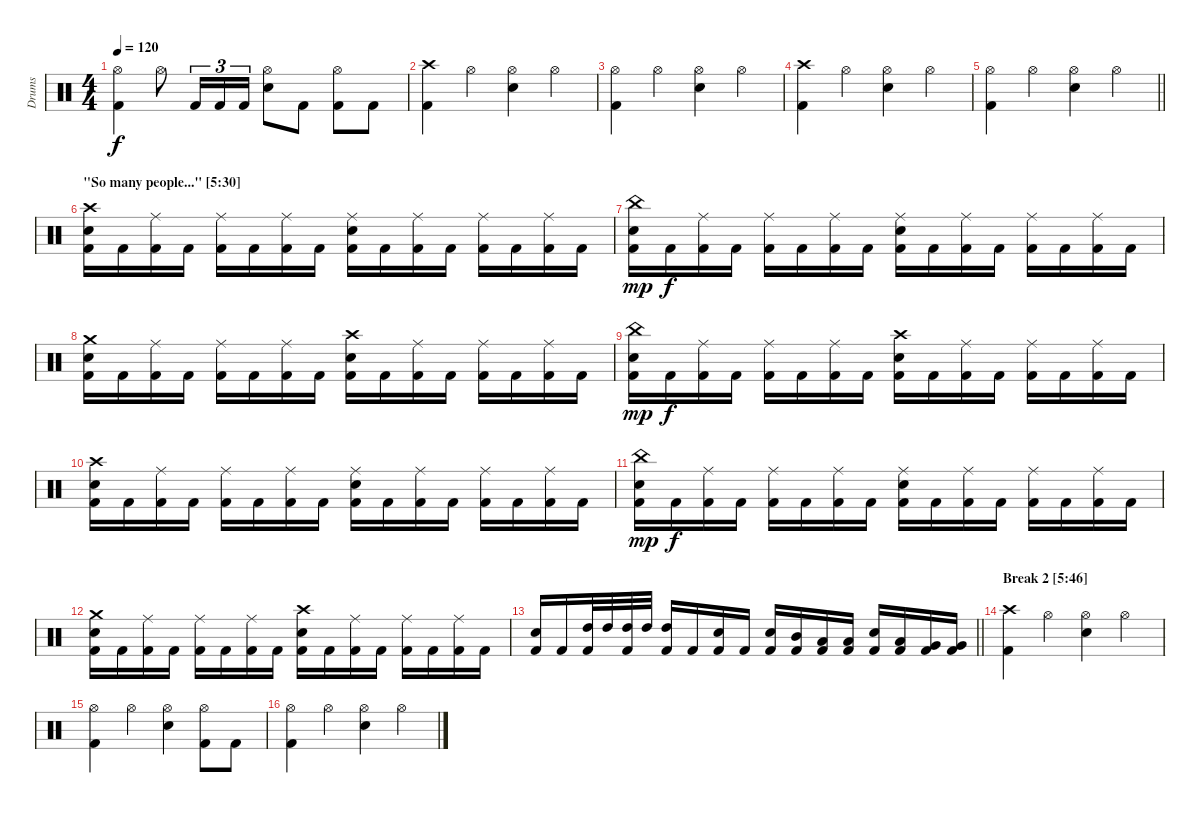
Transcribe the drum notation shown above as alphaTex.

\track ("Drums" "Drums") {instrument percussion}
\staff {score}
\articulation defaults
\ts (4 4)
\tempo 120
\clef neutral
\ks c
("Hi-Hat (open)" "Kick (hit) 2").4{dy f} "Hi-Hat (open)".8 "Kick (hit) 2".16{tu (3 2)} "Kick (hit) 2".16{tu (3 2)} "Kick (hit) 2".16{tu (3 2)} ("Hi-Hat (open)" "Snare (hit) 2").8 "Kick (hit) 2".8 ("Hi-Hat (open)" "Kick (hit) 2").8 "Kick (hit) 2".8 |
("Crash high (hit)" "Kick (hit) 2").4 "Hi-Hat (open)".4 ("Hi-Hat (open)" "Snare (hit) 2").4 "Hi-Hat (open)".4 |
("Hi-Hat (open)" "Kick (hit) 2").4 "Hi-Hat (open)".4 ("Hi-Hat (open)" "Snare (hit) 2").4 "Hi-Hat (open)".4 |
("Crash high (hit)" "Kick (hit) 2").4 "Hi-Hat (open)".4 ("Hi-Hat (open)" "Snare (hit) 2").4 "Hi-Hat (open)".4 |
\barLineRight lightlight
("Hi-Hat (open)" "Kick (hit) 2").4 "Hi-Hat (open)".4 ("Hi-Hat (open)" "Snare (hit) 2").4 "Hi-Hat (open)".4 |
\section ("" "\"So many people...\" [5:30]")
("Crash high (hit)" "Snare (hit) 2" "Kick (hit) 2").16 "Kick (hit) 2".16 ("Ride (middle)" "Kick (hit) 2").16 "Kick (hit) 2".16 ("Ride (middle)" "Kick (hit) 2").16 "Kick (hit) 2".16 ("Ride (middle)" "Kick (hit) 2").16 "Kick (hit) 2".16 ("Ride (middle)" "Snare (hit) 2" "Kick (hit) 2").16 "Kick (hit) 2".16 ("Ride (middle)" "Kick (hit) 2").16 "Kick (hit) 2".16 ("Ride (middle)" "Kick (hit) 2").16 "Kick (hit) 2".16 ("Ride (middle)" "Kick (hit) 2").16 "Kick (hit) 2".16 |
("China (hit)" "Snare (hit) 2" "Kick (hit) 2").16{dy mp} "Kick (hit) 2".16{dy f} ("Ride (middle)" "Kick (hit) 2").16 "Kick (hit) 2".16 ("Ride (middle)" "Kick (hit) 2").16 "Kick (hit) 2".16 ("Ride (middle)" "Kick (hit) 2").16 "Kick (hit) 2".16 ("Ride (middle)" "Snare (hit) 2" "Kick (hit) 2").16 "Kick (hit) 2".16 ("Ride (middle)" "Kick (hit) 2").16 "Kick (hit) 2".16 ("Ride (middle)" "Kick (hit) 2").16 "Kick (hit) 2".16 ("Ride (middle)" "Kick (hit) 2").16 "Kick (hit) 2".16 |
("Crash medium (hit)" "Snare (hit) 2" "Kick (hit) 2").16 "Kick (hit) 2".16 ("Ride (middle)" "Kick (hit) 2").16 "Kick (hit) 2".16 ("Ride (middle)" "Kick (hit) 2").16 "Kick (hit) 2".16 ("Ride (middle)" "Kick (hit) 2").16 "Kick (hit) 2".16 ("Crash high (hit)" "Snare (hit) 2" "Kick (hit) 2").16 "Kick (hit) 2".16 ("Ride (middle)" "Kick (hit) 2").16 "Kick (hit) 2".16 ("Ride (middle)" "Kick (hit) 2").16 "Kick (hit) 2".16 ("Ride (middle)" "Kick (hit) 2").16 "Kick (hit) 2".16 |
("China (hit)" "Snare (hit) 2" "Kick (hit) 2").16{dy mp} "Kick (hit) 2".16{dy f} ("Ride (middle)" "Kick (hit) 2").16 "Kick (hit) 2".16 ("Ride (middle)" "Kick (hit) 2").16 "Kick (hit) 2".16 ("Ride (middle)" "Kick (hit) 2").16 "Kick (hit) 2".16 ("Crash high (hit)" "Snare (hit) 2" "Kick (hit) 2").16 "Kick (hit) 2".16 ("Ride (middle)" "Kick (hit) 2").16 "Kick (hit) 2".16 ("Ride (middle)" "Kick (hit) 2").16 "Kick (hit) 2".16 ("Ride (middle)" "Kick (hit) 2").16 "Kick (hit) 2".16 |
("Crash high (hit)" "Snare (hit) 2" "Kick (hit) 2").16 "Kick (hit) 2".16 ("Ride (middle)" "Kick (hit) 2").16 "Kick (hit) 2".16 ("Ride (middle)" "Kick (hit) 2").16 "Kick (hit) 2".16 ("Ride (middle)" "Kick (hit) 2").16 "Kick (hit) 2".16 ("Ride (middle)" "Snare (hit) 2" "Kick (hit) 2").16 "Kick (hit) 2".16 ("Ride (middle)" "Kick (hit) 2").16 "Kick (hit) 2".16 ("Ride (middle)" "Kick (hit) 2").16 "Kick (hit) 2".16 ("Ride (middle)" "Kick (hit) 2").16 "Kick (hit) 2".16 |
("China (hit)" "Snare (hit) 2" "Kick (hit) 2").16{dy mp} "Kick (hit) 2".16{dy f} ("Ride (middle)" "Kick (hit) 2").16 "Kick (hit) 2".16 ("Ride (middle)" "Kick (hit) 2").16 "Kick (hit) 2".16 ("Ride (middle)" "Kick (hit) 2").16 "Kick (hit) 2".16 ("Ride (middle)" "Snare (hit) 2" "Kick (hit) 2").16 "Kick (hit) 2".16 ("Ride (middle)" "Kick (hit) 2").16 "Kick (hit) 2".16 ("Ride (middle)" "Kick (hit) 2").16 "Kick (hit) 2".16 ("Ride (middle)" "Kick (hit) 2").16 "Kick (hit) 2".16 |
("Crash medium (hit)" "Snare (hit) 2" "Kick (hit) 2").16 "Kick (hit) 2".16 ("Ride (middle)" "Kick (hit) 2").16 "Kick (hit) 2".16 ("Ride (middle)" "Kick (hit) 2").16 "Kick (hit) 2".16 ("Ride (middle)" "Kick (hit) 2").16 "Kick (hit) 2".16 ("Crash high (hit)" "Snare (hit) 2" "Kick (hit) 2").16 "Kick (hit) 2".16 ("Ride (middle)" "Kick (hit) 2").16 "Kick (hit) 2".16 ("Ride (middle)" "Kick (hit) 2").16 "Kick (hit) 2".16 ("Ride (middle)" "Kick (hit) 2").16 "Kick (hit) 2".16 |
\barLineRight lightlight
("Snare (hit) 2" "Kick (hit) 2").16 "Kick (hit) 2".16 ("High Tom (hit)" "Kick (hit) 2").32 "High Tom (hit)".32 ("High Tom (hit)" "Kick (hit) 2").32 "High Tom (hit)".32 ("High Tom (hit)" "Kick (hit) 2").16 "Kick (hit) 2".16 ("Snare (hit) 2" "Kick (hit) 2").16 "Kick (hit) 2".16 ("Snare (hit) 2" "Kick (hit) 2").16 ("Mid Tom (hit)" "Kick (hit) 2").16 ("Low Tom (hit)" "Kick (hit) 2").16 ("Low Tom (hit)" "Kick (hit) 2").16 ("Snare (hit) 2" "Kick (hit) 2").16 ("Low Tom (hit)" "Kick (hit) 2").16 ("Very Low Tom (hit)" "Kick (hit) 2").16 ("Very Low Tom (hit)" "Kick (hit) 2").16 |
\section ("" "Break 2 [5:46]")
("Crash high (hit)" "Kick (hit) 2").4 "Hi-Hat (open)".4 ("Hi-Hat (open)" "Snare (hit) 2").4 "Hi-Hat (open)".4 |
("Hi-Hat (open)" "Kick (hit) 2").4 "Hi-Hat (open)".4 ("Hi-Hat (open)" "Snare (hit) 2").4 ("Hi-Hat (open)" "Kick (hit) 2").8 "Kick (hit) 2".8 |
("Hi-Hat (open)" "Kick (hit) 2").4 "Hi-Hat (open)".4 ("Hi-Hat (open)" "Snare (hit) 2").4 "Hi-Hat (open)".4
